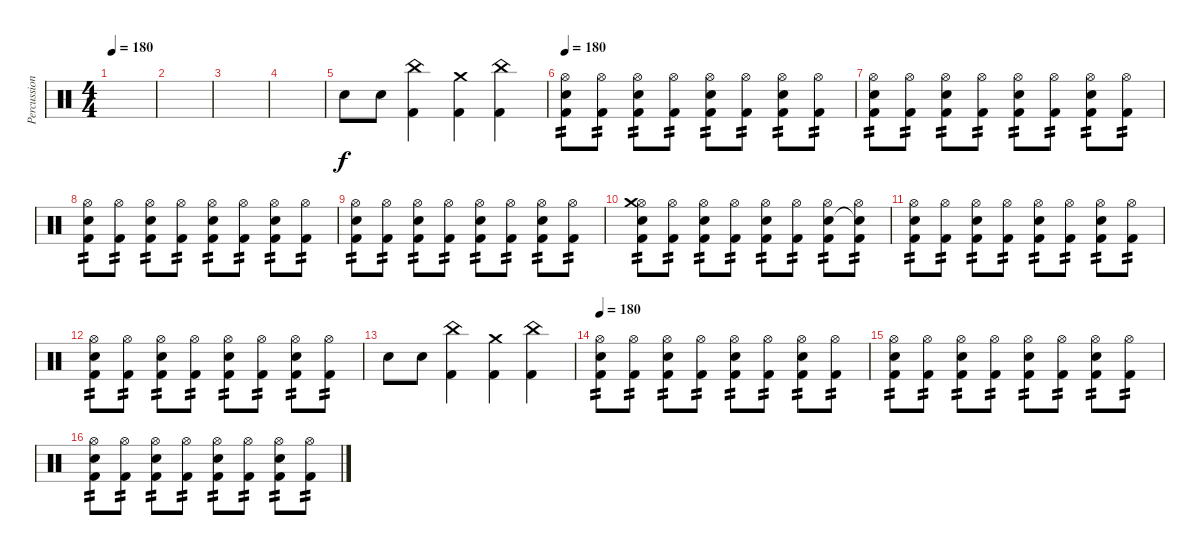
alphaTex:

\track ("Percussion" "Percussion") {instrument percussion}
\staff {score}
\articulation defaults
\ts (4 4)
\tempo 180
\clef neutral
\ks c
|
|
|
|
"Electric Snare (hit)".8 "Electric Snare (hit)".8 ("China (hit)" "Kick (hit) 2").4 ("Crash medium (hit)" "Kick (hit) 2").4 ("China (hit)" "Kick (hit) 2").4 |
\tempo 180
("Hi-Hat (open)" "Electric Snare (hit)" "Kick (hit) 2").8{tp 2} ("Hi-Hat (open)" "Kick (hit) 2").8{tp 2} ("Hi-Hat (open)" "Electric Snare (hit)" "Kick (hit) 2").8{tp 2} ("Hi-Hat (open)" "Kick (hit) 2").8{tp 2} ("Hi-Hat (open)" "Electric Snare (hit)" "Kick (hit) 2").8{tp 2} ("Hi-Hat (open)" "Kick (hit) 2").8{tp 2} ("Hi-Hat (open)" "Electric Snare (hit)" "Kick (hit) 2").8{tp 2} ("Hi-Hat (open)" "Kick (hit) 2").8{tp 2} |
("Hi-Hat (open)" "Electric Snare (hit)" "Kick (hit) 2").8{tp 2} ("Hi-Hat (open)" "Kick (hit) 2").8{tp 2} ("Hi-Hat (open)" "Electric Snare (hit)" "Kick (hit) 2").8{tp 2} ("Hi-Hat (open)" "Kick (hit) 2").8{tp 2} ("Hi-Hat (open)" "Electric Snare (hit)" "Kick (hit) 2").8{tp 2} ("Hi-Hat (open)" "Kick (hit) 2").8{tp 2} ("Hi-Hat (open)" "Electric Snare (hit)" "Kick (hit) 2").8{tp 2} ("Hi-Hat (open)" "Kick (hit) 2").8{tp 2} |
("Hi-Hat (open)" "Electric Snare (hit)" "Kick (hit) 2").8{tp 2} ("Hi-Hat (open)" "Kick (hit) 2").8{tp 2} ("Hi-Hat (open)" "Electric Snare (hit)" "Kick (hit) 2").8{tp 2} ("Hi-Hat (open)" "Kick (hit) 2").8{tp 2} ("Hi-Hat (open)" "Electric Snare (hit)" "Kick (hit) 2").8{tp 2} ("Hi-Hat (open)" "Kick (hit) 2").8{tp 2} ("Hi-Hat (open)" "Electric Snare (hit)" "Kick (hit) 2").8{tp 2} ("Hi-Hat (open)" "Kick (hit) 2").8{tp 2} |
("Hi-Hat (open)" "Electric Snare (hit)" "Kick (hit) 2").8{tp 2} ("Hi-Hat (open)" "Kick (hit) 2").8{tp 2} ("Hi-Hat (open)" "Electric Snare (hit)" "Kick (hit) 2").8{tp 2} ("Hi-Hat (open)" "Kick (hit) 2").8{tp 2} ("Hi-Hat (open)" "Electric Snare (hit)" "Kick (hit) 2").8{tp 2} ("Hi-Hat (open)" "Kick (hit) 2").8{tp 2} ("Hi-Hat (open)" "Electric Snare (hit)" "Kick (hit) 2").8{tp 2} ("Hi-Hat (open)" "Kick (hit) 2").8{tp 2} |
("Hi-Hat (open)" "Crash medium (hit)" "Electric Snare (hit)" "Kick (hit) 2").8{tp 2} ("Hi-Hat (open)" "Kick (hit) 2").8{tp 2} ("Hi-Hat (open)" "Electric Snare (hit)" "Kick (hit) 2").8{tp 2} ("Hi-Hat (open)" "Kick (hit) 2").8{tp 2} ("Hi-Hat (open)" "Electric Snare (hit)" "Kick (hit) 2").8{tp 2} ("Hi-Hat (open)" "Kick (hit) 2").8{tp 2} ("Hi-Hat (open)" "Electric Snare (hit)" "Kick (hit) 2").8{tp 2} ("Hi-Hat (open)" "Snare (hit)"{t} "Kick (hit) 2").8{tp 2} |
("Hi-Hat (open)" "Electric Snare (hit)" "Kick (hit) 2").8{tp 2} ("Hi-Hat (open)" "Kick (hit) 2").8{tp 2} ("Hi-Hat (open)" "Electric Snare (hit)" "Kick (hit) 2").8{tp 2} ("Hi-Hat (open)" "Kick (hit) 2").8{tp 2} ("Hi-Hat (open)" "Electric Snare (hit)" "Kick (hit) 2").8{tp 2} ("Hi-Hat (open)" "Kick (hit) 2").8{tp 2} ("Hi-Hat (open)" "Electric Snare (hit)" "Kick (hit) 2").8{tp 2} ("Hi-Hat (open)" "Kick (hit) 2").8{tp 2} |
("Hi-Hat (open)" "Electric Snare (hit)" "Kick (hit) 2").8{tp 2} ("Hi-Hat (open)" "Kick (hit) 2").8{tp 2} ("Hi-Hat (open)" "Electric Snare (hit)" "Kick (hit) 2").8{tp 2} ("Hi-Hat (open)" "Kick (hit) 2").8{tp 2} ("Hi-Hat (open)" "Electric Snare (hit)" "Kick (hit) 2").8{tp 2} ("Hi-Hat (open)" "Kick (hit) 2").8{tp 2} ("Hi-Hat (open)" "Electric Snare (hit)" "Kick (hit) 2").8{tp 2} ("Hi-Hat (open)" "Kick (hit) 2").8{tp 2} |
"Electric Snare (hit)".8 "Electric Snare (hit)".8 ("China (hit)" "Kick (hit) 2").4 ("Crash medium (hit)" "Kick (hit) 2").4 ("China (hit)" "Kick (hit) 2").4 |
\tempo 180
("Hi-Hat (open)" "Electric Snare (hit)" "Kick (hit) 2").8{tp 2} ("Hi-Hat (open)" "Kick (hit) 2").8{tp 2} ("Hi-Hat (open)" "Electric Snare (hit)" "Kick (hit) 2").8{tp 2} ("Hi-Hat (open)" "Kick (hit) 2").8{tp 2} ("Hi-Hat (open)" "Electric Snare (hit)" "Kick (hit) 2").8{tp 2} ("Hi-Hat (open)" "Kick (hit) 2").8{tp 2} ("Hi-Hat (open)" "Electric Snare (hit)" "Kick (hit) 2").8{tp 2} ("Hi-Hat (open)" "Kick (hit) 2").8{tp 2} |
("Hi-Hat (open)" "Electric Snare (hit)" "Kick (hit) 2").8{tp 2} ("Hi-Hat (open)" "Kick (hit) 2").8{tp 2} ("Hi-Hat (open)" "Electric Snare (hit)" "Kick (hit) 2").8{tp 2} ("Hi-Hat (open)" "Kick (hit) 2").8{tp 2} ("Hi-Hat (open)" "Electric Snare (hit)" "Kick (hit) 2").8{tp 2} ("Hi-Hat (open)" "Kick (hit) 2").8{tp 2} ("Hi-Hat (open)" "Electric Snare (hit)" "Kick (hit) 2").8{tp 2} ("Hi-Hat (open)" "Kick (hit) 2").8{tp 2} |
("Hi-Hat (open)" "Electric Snare (hit)" "Kick (hit) 2").8{tp 2} ("Hi-Hat (open)" "Kick (hit) 2").8{tp 2} ("Hi-Hat (open)" "Electric Snare (hit)" "Kick (hit) 2").8{tp 2} ("Hi-Hat (open)" "Kick (hit) 2").8{tp 2} ("Hi-Hat (open)" "Electric Snare (hit)" "Kick (hit) 2").8{tp 2} ("Hi-Hat (open)" "Kick (hit) 2").8{tp 2} ("Hi-Hat (open)" "Electric Snare (hit)" "Kick (hit) 2").8{tp 2} ("Hi-Hat (open)" "Kick (hit) 2").8{tp 2}
